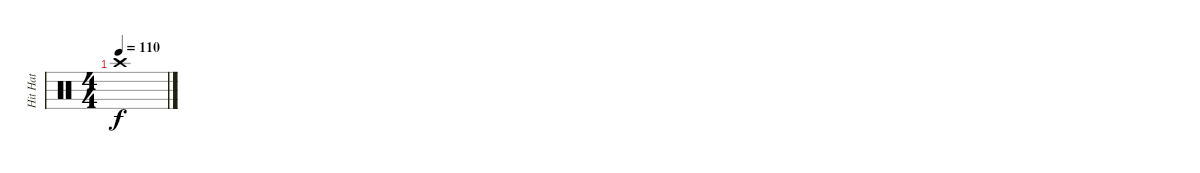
\track ("Hit Hat" "Hit Hat") {instrument percussion}
\staff {score}
\articulation defaults
\ts (4 4)
\tempo 110
\clef neutral
\ks c "Crash high (hit)".1{dy f}
